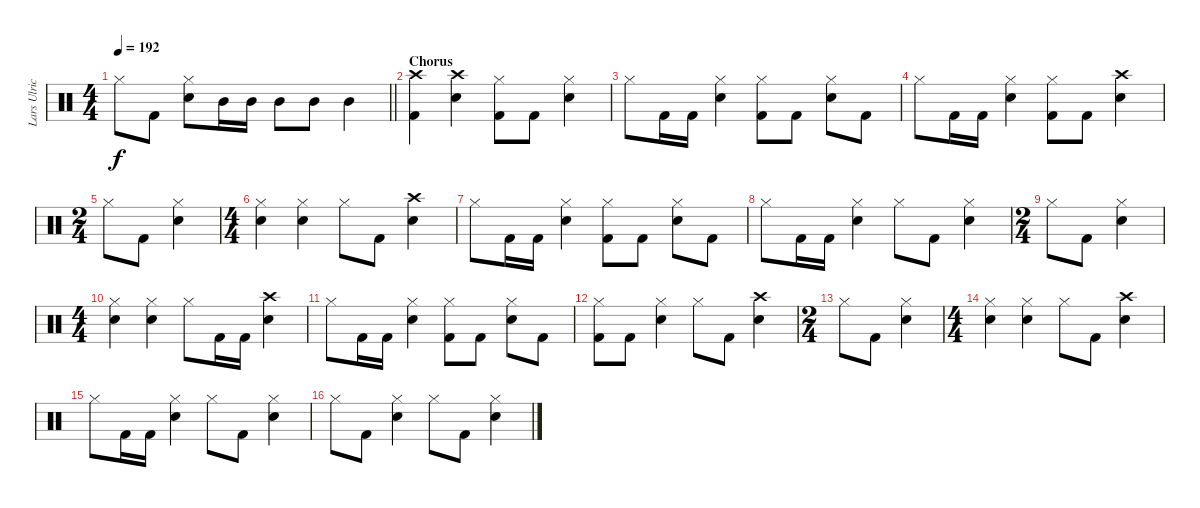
\track ("Lars Ulrich - Drums" "Lars Ulric") {instrument percussion}
\staff {score}
\articulation defaults
\ts (4 4)
\tempo 192
\clef neutral
\barLineRight lightlight
\ks c "Hi-Hat (closed)".8{dy f} "Kick (hit) 2".8
("Hi-Hat (closed)" "Snare (hit) 2").8 "Mid Tom (hit)".16 "Mid Tom (hit)".16 "Mid Tom (hit)".8 "Mid Tom (hit)".8 "Mid Tom (hit)".4 |
\section ("" "Chorus")
("Crash high (hit)" "Kick (hit) 2").4 ("Crash high (hit)" "Snare (hit) 2").4 ("Hi-Hat (closed)" "Kick (hit) 2").8 "Kick (hit) 2".8 ("Hi-Hat (closed)" "Snare (hit) 2").4 |
"Hi-Hat (closed)".8 "Kick (hit) 2".16 "Kick (hit) 2".16 ("Hi-Hat (closed)" "Snare (hit) 2").4 ("Hi-Hat (closed)" "Kick (hit) 2").8 "Kick (hit) 2".8 ("Hi-Hat (closed)" "Snare (hit) 2").8 "Kick (hit) 2".8 |
"Hi-Hat (closed)".8 "Kick (hit) 2".16 "Kick (hit) 2".16 ("Hi-Hat (closed)" "Snare (hit) 2").4 ("Hi-Hat (closed)" "Kick (hit) 2").8 "Kick (hit) 2".8 ("Crash high (hit)" "Snare (hit) 2").4 |
\ts (2 4)
"Hi-Hat (closed)".8 "Kick (hit) 2".8 ("Hi-Hat (closed)" "Snare (hit) 2").4 |
\ts (4 4)
("Hi-Hat (closed)" "Snare (hit) 2").4 ("Hi-Hat (closed)" "Snare (hit) 2").4 "Hi-Hat (closed)".8 "Kick (hit) 2".8 ("Crash high (hit)" "Snare (hit) 2").4 |
"Hi-Hat (closed)".8 "Kick (hit) 2".16 "Kick (hit) 2".16 ("Hi-Hat (closed)" "Snare (hit) 2").4 ("Hi-Hat (closed)" "Kick (hit) 2").8 "Kick (hit) 2".8 ("Hi-Hat (closed)" "Snare (hit) 2").8 "Kick (hit) 2".8 |
"Hi-Hat (closed)".8 "Kick (hit) 2".16 "Kick (hit) 2".16 ("Hi-Hat (closed)" "Snare (hit) 2").4 "Hi-Hat (closed)".8 "Kick (hit) 2".8 ("Hi-Hat (closed)" "Snare (hit) 2").4 |
\ts (2 4)
"Hi-Hat (closed)".8 "Kick (hit) 2".8 ("Hi-Hat (closed)" "Snare (hit) 2").4 |
\ts (4 4)
("Hi-Hat (closed)" "Snare (hit) 2").4 ("Hi-Hat (closed)" "Snare (hit) 2").4 "Hi-Hat (closed)".8 "Kick (hit) 2".16 "Kick (hit) 2".16 ("Crash high (hit)" "Snare (hit) 2").4 |
"Hi-Hat (closed)".8 "Kick (hit) 2".16 "Kick (hit) 2".16 ("Hi-Hat (closed)" "Snare (hit) 2").4 ("Hi-Hat (closed)" "Kick (hit) 2").8 "Kick (hit) 2".8 ("Hi-Hat (closed)" "Snare (hit) 2").8 "Kick (hit) 2".8 |
("Hi-Hat (closed)" "Kick (hit) 2").8 "Kick (hit) 2".8 ("Hi-Hat (closed)" "Snare (hit) 2").4 "Hi-Hat (closed)".8 "Kick (hit) 2".8 ("Crash high (hit)" "Snare (hit) 2").4 |
\ts (2 4)
"Hi-Hat (closed)".8 "Kick (hit) 2".8 ("Hi-Hat (closed)" "Snare (hit) 2").4 |
\ts (4 4)
("Hi-Hat (closed)" "Snare (hit) 2").4 ("Hi-Hat (closed)" "Snare (hit) 2").4 "Hi-Hat (closed)".8 "Kick (hit) 2".8 ("Crash high (hit)" "Snare (hit) 2").4 |
"Hi-Hat (closed)".8 "Kick (hit) 2".16 "Kick (hit) 2".16 ("Hi-Hat (closed)" "Snare (hit) 2").4 "Hi-Hat (closed)".8 "Kick (hit) 2".8 ("Hi-Hat (closed)" "Snare (hit) 2").4 |
"Hi-Hat (closed)".8 "Kick (hit) 2".8 ("Hi-Hat (closed)" "Snare (hit) 2").4 "Hi-Hat (closed)".8 "Kick (hit) 2".8 ("Hi-Hat (closed)" "Snare (hit) 2").4
